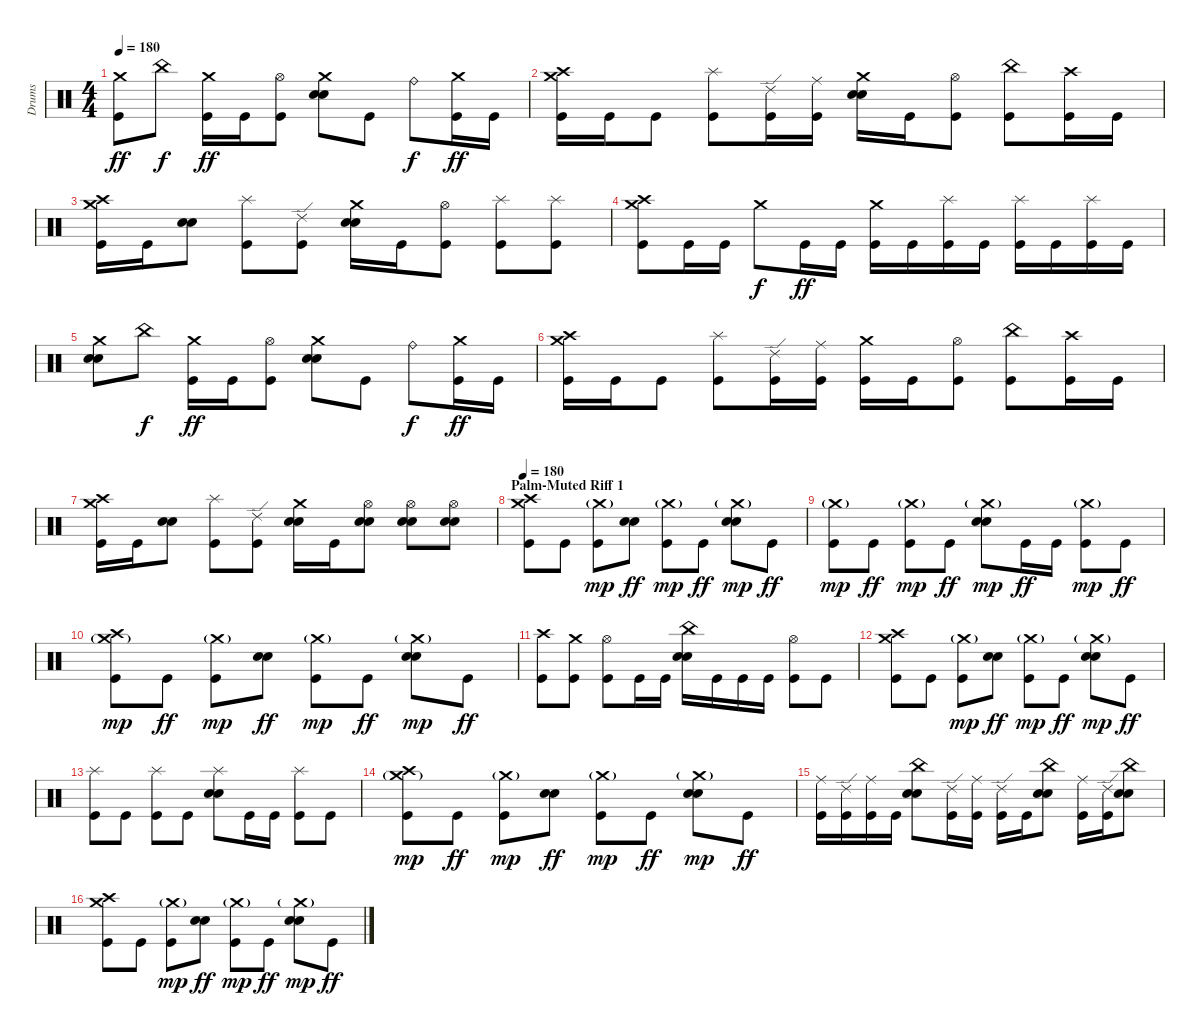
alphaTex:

\track ("Drums" "Drums") {instrument percussion}
\staff {score}
\articulation defaults
\ts (4 4)
\tempo 180
\clef neutral
\ks c
("Kick (hit)" "Crash medium (hit)").8{dy ff} "China (hit)".8{dy f} ("Kick (hit)" "Crash medium (hit)").16{dy ff} "Kick (hit)".16 ("Kick (hit)" "Hi-Hat (open)").8 ("Electric Snare (hit)" "Electric Snare (hit)" "Crash medium (hit)").8 "Kick (hit)".8 "Ride (bell)".8{dy f} ("Kick (hit)" "Crash medium (hit)").16{dy ff} "Kick (hit)".16 |
("Kick (hit)" "Crash high (hit)" "Crash medium (hit)").16 "Kick (hit)".16 "Kick (hit)".8 ("Kick (hit)" "Splash (hit)").8 ("Kick (hit)" "Ride (edge) 2").16 ("Kick (hit)" "Ride (middle)").16 ("Electric Snare (hit)" "Electric Snare (hit)" "Crash medium (hit)").16 "Kick (hit)".16 ("Kick (hit)" "Hi-Hat (open)").8 ("Kick (hit)" "China (hit)").8 ("Kick (hit)" "Crash high (hit)").16 "Kick (hit)".16 |
("Kick (hit)" "Crash high (hit)" "Crash medium (hit)").16 "Kick (hit)".16 ("Electric Snare (hit)" "Electric Snare (hit)").8 ("Kick (hit)" "Splash (hit)").8 ("Kick (hit)" "Ride (edge) 2").8 ("Electric Snare (hit)" "Electric Snare (hit)" "Crash medium (hit)").16 "Kick (hit)".16 ("Kick (hit)" "Hi-Hat (open)").8 ("Kick (hit)" "Splash (hit)").8 ("Kick (hit)" "Splash (hit)").8 |
("Kick (hit)" "Crash high (hit)" "Crash medium (hit)").8 "Kick (hit)".16 "Kick (hit)".16 "Crash medium (hit)".8{dy f} "Kick (hit)".16{dy ff} "Kick (hit)".16 ("Kick (hit)" "Crash medium (hit)").16 "Kick (hit)".16 ("Kick (hit)" "Splash (hit)").16 "Kick (hit)".16 ("Kick (hit)" "Splash (hit)").16 "Kick (hit)".16 ("Kick (hit)" "Splash (hit)").16 "Kick (hit)".16 |
("Electric Snare (hit)" "Electric Snare (hit)" "Crash medium (hit)").8 "China (hit)".8{dy f} ("Kick (hit)" "Crash medium (hit)").16{dy ff} "Kick (hit)".16 ("Kick (hit)" "Hi-Hat (open)").8 ("Electric Snare (hit)" "Electric Snare (hit)" "Crash medium (hit)").8 "Kick (hit)".8 "Ride (bell)".8{dy f} ("Kick (hit)" "Crash medium (hit)").16{dy ff} "Kick (hit)".16 |
("Kick (hit)" "Crash high (hit)" "Crash medium (hit)").16 "Kick (hit)".16 "Kick (hit)".8 ("Kick (hit)" "Splash (hit)").8 ("Kick (hit)" "Ride (edge) 2").16 ("Kick (hit)" "Ride (middle)").16 ("Kick (hit)" "Crash medium (hit)").16 "Kick (hit)".16 ("Kick (hit)" "Hi-Hat (open)").8 ("Kick (hit)" "China (hit)").8 ("Kick (hit)" "Crash high (hit)").16 "Kick (hit)".16 |
("Kick (hit)" "Crash high (hit)" "Crash medium (hit)").16 "Kick (hit)".16 ("Electric Snare (hit)" "Electric Snare (hit)").8 ("Kick (hit)" "Splash (hit)").8 ("Kick (hit)" "Ride (edge) 2").8 ("Electric Snare (hit)" "Electric Snare (hit)" "Crash medium (hit)").16 "Kick (hit)".16 ("Electric Snare (hit)" "Electric Snare (hit)" "Hi-Hat (open)").8 ("Electric Snare (hit)" "Electric Snare (hit)" "Hi-Hat (open)").8 ("Electric Snare (hit)" "Electric Snare (hit)" "Hi-Hat (open)").8 |
\section ("" "Palm-Muted Riff 1")
\tempo 180
("Kick (hit)" "Crash high (hit)" "Crash medium (hit)").8 "Kick (hit)".8 ("Kick (hit)" "Crash medium (hit)"{g}).8{dy mp} ("Electric Snare (hit)" "Electric Snare (hit)").8{dy ff} ("Kick (hit)" "Crash medium (hit)"{g}).8{dy mp} "Kick (hit)".8{dy ff} ("Electric Snare (hit)" "Electric Snare (hit)" "Crash medium (hit)"{g}).8{dy mp} "Kick (hit)".8{dy ff} |
("Kick (hit)" "Crash medium (hit)"{g}).8{dy mp} "Kick (hit)".8{dy ff} ("Kick (hit)" "Crash medium (hit)"{g}).8{dy mp} "Kick (hit)".8{dy ff} ("Electric Snare (hit)" "Electric Snare (hit)" "Crash medium (hit)"{g}).8{dy mp} "Kick (hit)".16{dy ff} "Kick (hit)".16 ("Kick (hit)" "Crash medium (hit)"{g}).8{dy mp} "Kick (hit)".8{dy ff} |
("Kick (hit)" "Crash high (hit)" "Crash medium (hit)"{g}).8{dy mp} "Kick (hit)".8{dy ff} ("Kick (hit)" "Crash medium (hit)"{g}).8{dy mp} ("Electric Snare (hit)" "Electric Snare (hit)").8{dy ff} ("Kick (hit)" "Crash medium (hit)"{g}).8{dy mp} "Kick (hit)".8{dy ff} ("Electric Snare (hit)" "Electric Snare (hit)" "Crash medium (hit)"{g}).8{dy mp} "Kick (hit)".8{dy ff} |
("Kick (hit)" "Crash high (hit)").8 ("Kick (hit)" "Crash medium (hit)").8 ("Kick (hit)" "Hi-Hat (open)").8 "Kick (hit)".16 "Kick (hit)".16 ("Electric Snare (hit)" "Electric Snare (hit)" "China (hit)").16 "Kick (hit)".16 "Kick (hit)".16 "Kick (hit)".16 ("Kick (hit)" "Hi-Hat (open)").8 "Kick (hit)".8 |
("Kick (hit)" "Crash high (hit)" "Crash medium (hit)").8 "Kick (hit)".8 ("Kick (hit)" "Crash medium (hit)"{g}).8{dy mp} ("Electric Snare (hit)" "Electric Snare (hit)").8{dy ff} ("Kick (hit)" "Crash medium (hit)"{g}).8{dy mp} "Kick (hit)".8{dy ff} ("Electric Snare (hit)" "Electric Snare (hit)" "Crash medium (hit)"{g}).8{dy mp} "Kick (hit)".8{dy ff} |
("Kick (hit)" "Splash (hit)").8 "Kick (hit)".8 ("Kick (hit)" "Splash (hit)").8 "Kick (hit)".8 ("Electric Snare (hit)" "Electric Snare (hit)" "Splash (hit)").8 "Kick (hit)".16 "Kick (hit)".16 ("Kick (hit)" "Splash (hit)").8 "Kick (hit)".8 |
("Kick (hit)" "Crash high (hit)" "Crash medium (hit)"{g}).8{dy mp} "Kick (hit)".8{dy ff} ("Kick (hit)" "Crash medium (hit)"{g}).8{dy mp} ("Electric Snare (hit)" "Electric Snare (hit)").8{dy ff} ("Kick (hit)" "Crash medium (hit)"{g}).8{dy mp} "Kick (hit)".8{dy ff} ("Electric Snare (hit)" "Electric Snare (hit)" "Crash medium (hit)"{g}).8{dy mp} "Kick (hit)".8{dy ff} |
("Kick (hit)" "Ride (middle)").16 ("Kick (hit)" "Ride (edge) 2").16 ("Kick (hit)" "Ride (middle)").16 "Kick (hit)".16 ("Electric Snare (hit)" "Electric Snare (hit)" "China (hit)").8 ("Kick (hit)" "Ride (edge) 2").16 ("Kick (hit)" "Ride (middle)").16 ("Kick (hit)" "Ride (edge) 2").16 "Kick (hit)".16 ("Electric Snare (hit)" "Electric Snare (hit)" "China (hit)").8 ("Kick (hit)" "Ride (middle)").16 ("Kick (hit)" "Ride (edge) 2").16 ("Electric Snare (hit)" "Electric Snare (hit)" "China (hit)").8 |
("Kick (hit)" "Crash high (hit)" "Crash medium (hit)").8 "Kick (hit)".8 ("Kick (hit)" "Crash medium (hit)"{g}).8{dy mp} ("Electric Snare (hit)" "Electric Snare (hit)").8{dy ff} ("Kick (hit)" "Crash medium (hit)"{g}).8{dy mp} "Kick (hit)".8{dy ff} ("Electric Snare (hit)" "Electric Snare (hit)" "Crash medium (hit)"{g}).8{dy mp} "Kick (hit)".8{dy ff}
